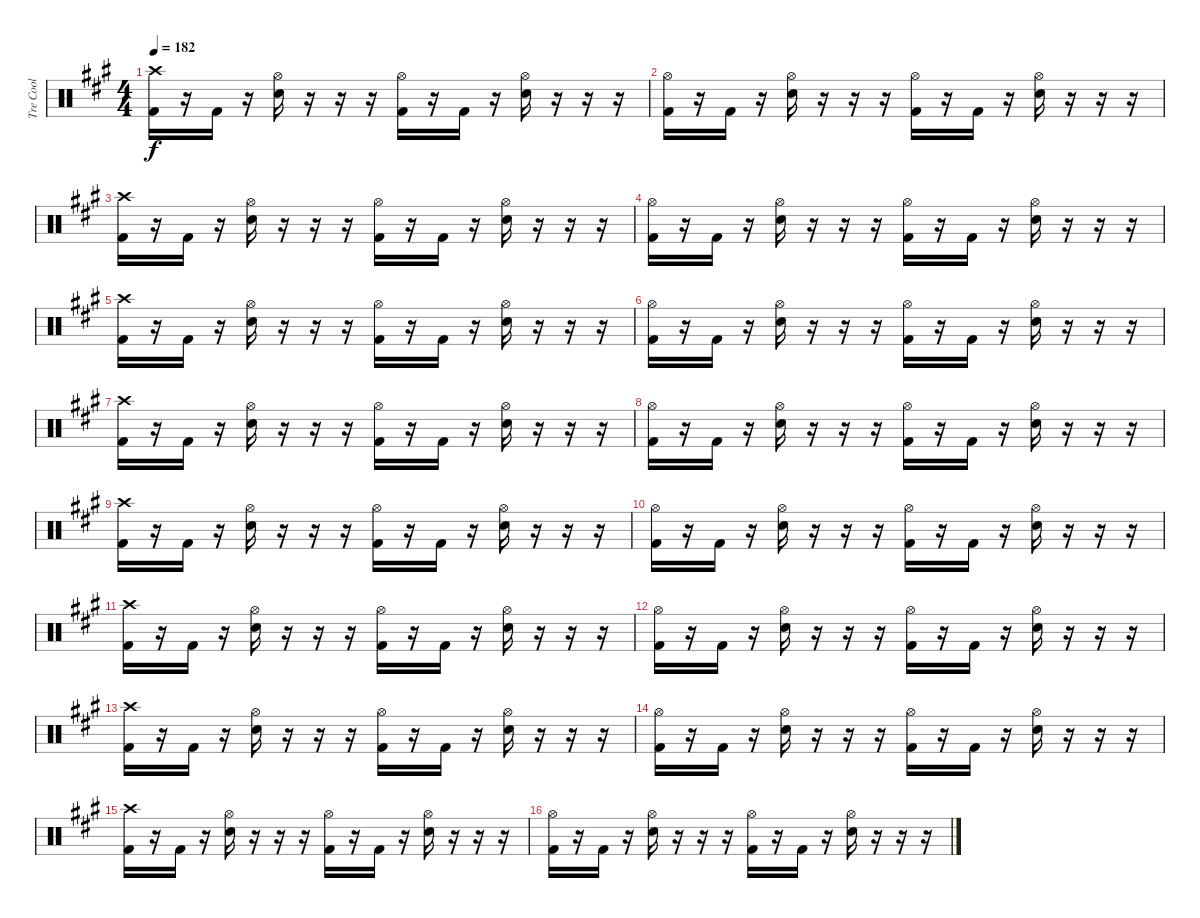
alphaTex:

\track ("Tre Cool" "Tre Cool") {instrument percussion}
\staff {score}
\articulation defaults
\ts (4 4)
\tempo 182
\clef neutral
\ks a
("Crash high (hit)" "Kick (hit) 2").16{dy f} r.16 "Kick (hit) 2".16 r.16 ("Hi-Hat (open)" "Snare (hit) 2").16 r.16 r.16 r.16 ("Hi-Hat (open)" "Kick (hit) 2").16 r.16 "Kick (hit) 2".16 r.16 ("Hi-Hat (open)" "Snare (hit) 2").16 r.16 r.16 r.16 |
("Hi-Hat (open)" "Kick (hit) 2").16 r.16 "Kick (hit) 2".16 r.16 ("Hi-Hat (open)" "Snare (hit) 2").16 r.16 r.16 r.16 ("Hi-Hat (open)" "Kick (hit) 2").16 r.16 "Kick (hit) 2".16 r.16 ("Hi-Hat (open)" "Snare (hit) 2").16 r.16 r.16 r.16 |
("Crash high (hit)" "Kick (hit) 2").16 r.16 "Kick (hit) 2".16 r.16 ("Hi-Hat (open)" "Snare (hit) 2").16 r.16 r.16 r.16 ("Hi-Hat (open)" "Kick (hit) 2").16 r.16 "Kick (hit) 2".16 r.16 ("Hi-Hat (open)" "Snare (hit) 2").16 r.16 r.16 r.16 |
("Hi-Hat (open)" "Kick (hit) 2").16 r.16 "Kick (hit) 2".16 r.16 ("Hi-Hat (open)" "Snare (hit) 2").16 r.16 r.16 r.16 ("Hi-Hat (open)" "Kick (hit) 2").16 r.16 "Kick (hit) 2".16 r.16 ("Hi-Hat (open)" "Snare (hit) 2").16 r.16 r.16 r.16 |
("Crash high (hit)" "Kick (hit) 2").16 r.16 "Kick (hit) 2".16 r.16 ("Hi-Hat (open)" "Snare (hit) 2").16 r.16 r.16 r.16 ("Hi-Hat (open)" "Kick (hit) 2").16 r.16 "Kick (hit) 2".16 r.16 ("Hi-Hat (open)" "Snare (hit) 2").16 r.16 r.16 r.16 |
("Hi-Hat (open)" "Kick (hit) 2").16 r.16 "Kick (hit) 2".16 r.16 ("Hi-Hat (open)" "Snare (hit) 2").16 r.16 r.16 r.16 ("Hi-Hat (open)" "Kick (hit) 2").16 r.16 "Kick (hit) 2".16 r.16 ("Hi-Hat (open)" "Snare (hit) 2").16 r.16 r.16 r.16 |
("Crash high (hit)" "Kick (hit) 2").16 r.16 "Kick (hit) 2".16 r.16 ("Hi-Hat (open)" "Snare (hit) 2").16 r.16 r.16 r.16 ("Hi-Hat (open)" "Kick (hit) 2").16 r.16 "Kick (hit) 2".16 r.16 ("Hi-Hat (open)" "Snare (hit) 2").16 r.16 r.16 r.16 |
("Hi-Hat (open)" "Kick (hit) 2").16 r.16 "Kick (hit) 2".16 r.16 ("Hi-Hat (open)" "Snare (hit) 2").16 r.16 r.16 r.16 ("Hi-Hat (open)" "Kick (hit) 2").16 r.16 "Kick (hit) 2".16 r.16 ("Hi-Hat (open)" "Snare (hit) 2").16 r.16 r.16 r.16 |
("Crash high (hit)" "Kick (hit) 2").16 r.16 "Kick (hit) 2".16 r.16 ("Hi-Hat (open)" "Snare (hit) 2").16 r.16 r.16 r.16 ("Hi-Hat (open)" "Kick (hit) 2").16 r.16 "Kick (hit) 2".16 r.16 ("Hi-Hat (open)" "Snare (hit) 2").16 r.16 r.16 r.16 |
("Hi-Hat (open)" "Kick (hit) 2").16 r.16 "Kick (hit) 2".16 r.16 ("Hi-Hat (open)" "Snare (hit) 2").16 r.16 r.16 r.16 ("Hi-Hat (open)" "Kick (hit) 2").16 r.16 "Kick (hit) 2".16 r.16 ("Hi-Hat (open)" "Snare (hit) 2").16 r.16 r.16 r.16 |
("Crash high (hit)" "Kick (hit) 2").16 r.16 "Kick (hit) 2".16 r.16 ("Hi-Hat (open)" "Snare (hit) 2").16 r.16 r.16 r.16 ("Hi-Hat (open)" "Kick (hit) 2").16 r.16 "Kick (hit) 2".16 r.16 ("Hi-Hat (open)" "Snare (hit) 2").16 r.16 r.16 r.16 |
("Hi-Hat (open)" "Kick (hit) 2").16 r.16 "Kick (hit) 2".16 r.16 ("Hi-Hat (open)" "Snare (hit) 2").16 r.16 r.16 r.16 ("Hi-Hat (open)" "Kick (hit) 2").16 r.16 "Kick (hit) 2".16 r.16 ("Hi-Hat (open)" "Snare (hit) 2").16 r.16 r.16 r.16 |
("Crash high (hit)" "Kick (hit) 2").16 r.16 "Kick (hit) 2".16 r.16 ("Hi-Hat (open)" "Snare (hit) 2").16 r.16 r.16 r.16 ("Hi-Hat (open)" "Kick (hit) 2").16 r.16 "Kick (hit) 2".16 r.16 ("Hi-Hat (open)" "Snare (hit) 2").16 r.16 r.16 r.16 |
("Hi-Hat (open)" "Kick (hit) 2").16 r.16 "Kick (hit) 2".16 r.16 ("Hi-Hat (open)" "Snare (hit) 2").16 r.16 r.16 r.16 ("Hi-Hat (open)" "Kick (hit) 2").16 r.16 "Kick (hit) 2".16 r.16 ("Hi-Hat (open)" "Snare (hit) 2").16 r.16 r.16 r.16 |
("Crash high (hit)" "Kick (hit) 2").16 r.16 "Kick (hit) 2".16 r.16 ("Hi-Hat (open)" "Snare (hit) 2").16 r.16 r.16 r.16 ("Hi-Hat (open)" "Kick (hit) 2").16 r.16 "Kick (hit) 2".16 r.16 ("Hi-Hat (open)" "Snare (hit) 2").16 r.16 r.16 r.16 |
("Hi-Hat (open)" "Kick (hit) 2").16 r.16 "Kick (hit) 2".16 r.16 ("Hi-Hat (open)" "Snare (hit) 2").16 r.16 r.16 r.16 ("Hi-Hat (open)" "Kick (hit) 2").16 r.16 "Kick (hit) 2".16 r.16 ("Hi-Hat (open)" "Snare (hit) 2").16 r.16 r.16 r.16
